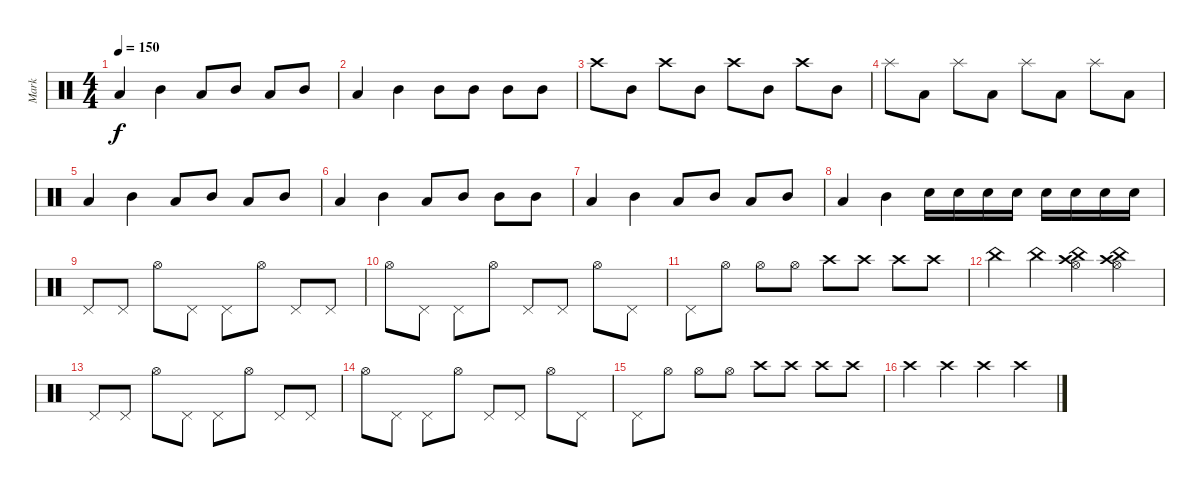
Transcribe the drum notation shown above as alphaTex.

\track ("Mark" "Mark") {instrument percussion}
\staff {score}
\articulation defaults
\ts (4 4)
\tempo 150
\clef neutral
\ks c "Low Tom (hit)".4{dy f} "Mid Tom (hit)".4 "Low Tom (hit)".8 "Mid Tom (hit)".8 "Low Tom (hit)".8 "Mid Tom (hit)".8
|
"Low Tom (hit)".4 "Mid Tom (hit)".4 "Mid Tom (hit)".8 "Mid Tom (hit)".8 "Mid Tom (hit)".8 "Mid Tom (hit)".8 |
"Crash high (hit)".8 "Mid Tom (hit)".8 "Crash high (hit)".8 "Mid Tom (hit)".8 "Crash high (hit)".8 "Mid Tom (hit)".8 "Crash high (hit)".8 "Mid Tom (hit)".8 |
"Splash (hit)".8 "Low Tom (hit)".8 "Splash (hit)".8 "Low Tom (hit)".8 "Splash (hit)".8 "Low Tom (hit)".8 "Splash (hit)".8 "Low Tom (hit)".8 |
"Low Tom (hit)".4 "Mid Tom (hit)".4 "Low Tom (hit)".8 "Mid Tom (hit)".8 "Low Tom (hit)".8 "Mid Tom (hit)".8 |
"Low Tom (hit)".4 "Mid Tom (hit)".4 "Low Tom (hit)".8 "Mid Tom (hit)".8 "Mid Tom (hit)".8 "Mid Tom (hit)".8 |
"Low Tom (hit)".4 "Mid Tom (hit)".4 "Low Tom (hit)".8 "Mid Tom (hit)".8 "Low Tom (hit)".8 "Mid Tom (hit)".8 |
"Low Tom (hit)".4 "Mid Tom (hit)".4 "Snare (hit) 2".16 "Snare (hit) 2".16 "Snare (hit) 2".16 "Snare (hit) 2".16 "Snare (hit) 2".16 "Snare (hit) 2".16 "Snare (hit) 2".16 "Snare (hit) 2".16 |
"Pedal Hi-Hat (hit)".8 "Pedal Hi-Hat (hit)".8 "Hi-Hat (open)".8 "Pedal Hi-Hat (hit)".8 "Pedal Hi-Hat (hit)".8 "Hi-Hat (open)".8 "Pedal Hi-Hat (hit)".8 "Pedal Hi-Hat (hit)".8 |
"Hi-Hat (open)".8 "Pedal Hi-Hat (hit)".8 "Pedal Hi-Hat (hit)".8 "Hi-Hat (open)".8 "Pedal Hi-Hat (hit)".8 "Pedal Hi-Hat (hit)".8 "Hi-Hat (open)".8 "Pedal Hi-Hat (hit)".8 |
"Pedal Hi-Hat (hit)".8 "Hi-Hat (open)".8 "Hi-Hat (open)".8 "Hi-Hat (open)".8 "Crash high (hit)".8 "Crash high (hit)".8 "Crash high (hit)".8 "Crash high (hit)".8 |
"China (hit)".4 "China (hit)".4 ("Hi-Hat (open)" "Crash high (hit)" "China (hit)").4 ("Hi-Hat (open)" "Crash high (hit)" "China (hit)").4 |
"Pedal Hi-Hat (hit)".8 "Pedal Hi-Hat (hit)".8 "Hi-Hat (open)".8 "Pedal Hi-Hat (hit)".8 "Pedal Hi-Hat (hit)".8 "Hi-Hat (open)".8 "Pedal Hi-Hat (hit)".8 "Pedal Hi-Hat (hit)".8 |
"Hi-Hat (open)".8 "Pedal Hi-Hat (hit)".8 "Pedal Hi-Hat (hit)".8 "Hi-Hat (open)".8 "Pedal Hi-Hat (hit)".8 "Pedal Hi-Hat (hit)".8 "Hi-Hat (open)".8 "Pedal Hi-Hat (hit)".8 |
"Pedal Hi-Hat (hit)".8 "Hi-Hat (open)".8 "Hi-Hat (open)".8 "Hi-Hat (open)".8 "Crash high (hit)".8 "Crash high (hit)".8 "Crash high (hit)".8 "Crash high (hit)".8 |
"Crash high (hit)".4 "Crash high (hit)".4 "Crash high (hit)".4 "Crash high (hit)".4
